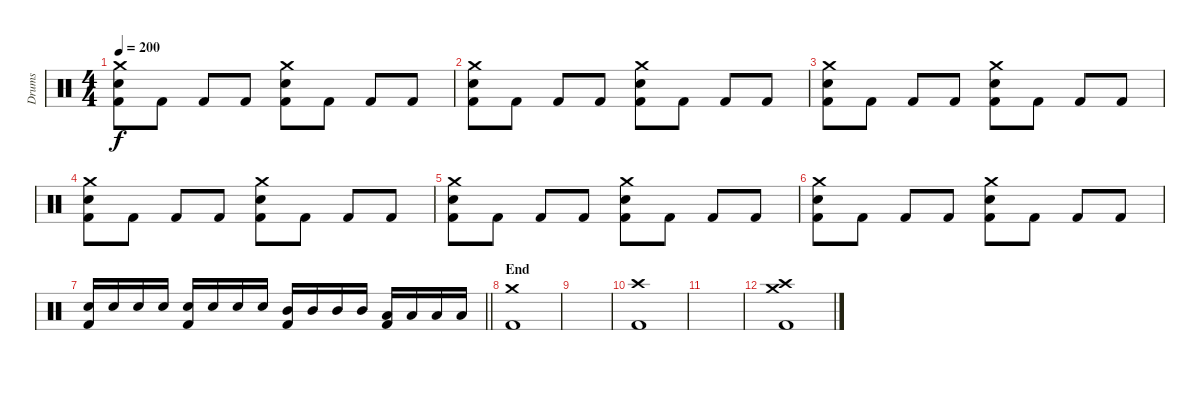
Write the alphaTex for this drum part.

\track ("Drums" "Drums") {instrument percussion}
\staff {score}
\articulation defaults
\ts (4 4)
\tempo 200
\clef neutral
\ks c
("Crash medium (hit)" "Electric Snare (hit)" "Kick (hit) 2").8{dy f} "Kick (hit) 2".8 "Kick (hit) 2".8 "Kick (hit) 2".8 ("Crash medium (hit)" "Electric Snare (hit)" "Kick (hit) 2").8 "Kick (hit) 2".8 "Kick (hit) 2".8 "Kick (hit) 2".8 |
("Crash medium (hit)" "Electric Snare (hit)" "Kick (hit) 2").8 "Kick (hit) 2".8 "Kick (hit) 2".8 "Kick (hit) 2".8 ("Crash medium (hit)" "Electric Snare (hit)" "Kick (hit) 2").8 "Kick (hit) 2".8 "Kick (hit) 2".8 "Kick (hit) 2".8 |
("Crash medium (hit)" "Electric Snare (hit)" "Kick (hit) 2").8 "Kick (hit) 2".8 "Kick (hit) 2".8 "Kick (hit) 2".8 ("Crash medium (hit)" "Electric Snare (hit)" "Kick (hit) 2").8 "Kick (hit) 2".8 "Kick (hit) 2".8 "Kick (hit) 2".8 |
("Crash medium (hit)" "Electric Snare (hit)" "Kick (hit) 2").8 "Kick (hit) 2".8 "Kick (hit) 2".8 "Kick (hit) 2".8 ("Crash medium (hit)" "Electric Snare (hit)" "Kick (hit) 2").8 "Kick (hit) 2".8 "Kick (hit) 2".8 "Kick (hit) 2".8 |
("Crash medium (hit)" "Electric Snare (hit)" "Kick (hit) 2").8 "Kick (hit) 2".8 "Kick (hit) 2".8 "Kick (hit) 2".8 ("Crash medium (hit)" "Electric Snare (hit)" "Kick (hit) 2").8 "Kick (hit) 2".8 "Kick (hit) 2".8 "Kick (hit) 2".8 |
("Crash medium (hit)" "Electric Snare (hit)" "Kick (hit) 2").8 "Kick (hit) 2".8 "Kick (hit) 2".8 "Kick (hit) 2".8 ("Crash medium (hit)" "Electric Snare (hit)" "Kick (hit) 2").8 "Kick (hit) 2".8 "Kick (hit) 2".8 "Kick (hit) 2".8 |
\barLineRight lightlight
("Electric Snare (hit)" "Kick (hit) 2").16 "Electric Snare (hit)".16 "Electric Snare (hit)".16 "Electric Snare (hit)".16 ("Electric Snare (hit)" "Kick (hit) 2").16 "Electric Snare (hit)".16 "Electric Snare (hit)".16 "Electric Snare (hit)".16 ("Mid Tom (hit)" "Kick (hit) 2").16 "Mid Tom (hit)".16 "Mid Tom (hit)".16 "Mid Tom (hit)".16 ("Low Tom (hit)" "Kick (hit) 2").16 "Low Tom (hit)".16 "Low Tom (hit)".16 "Low Tom (hit)".16 |
\section ("" "End")
("Crash medium (hit)" "Kick (hit) 2").1 |
|
("Crash high (hit)" "Kick (hit) 2").1 |
|
("Crash high (hit)" "Crash medium (hit)" "Kick (hit) 2").1
